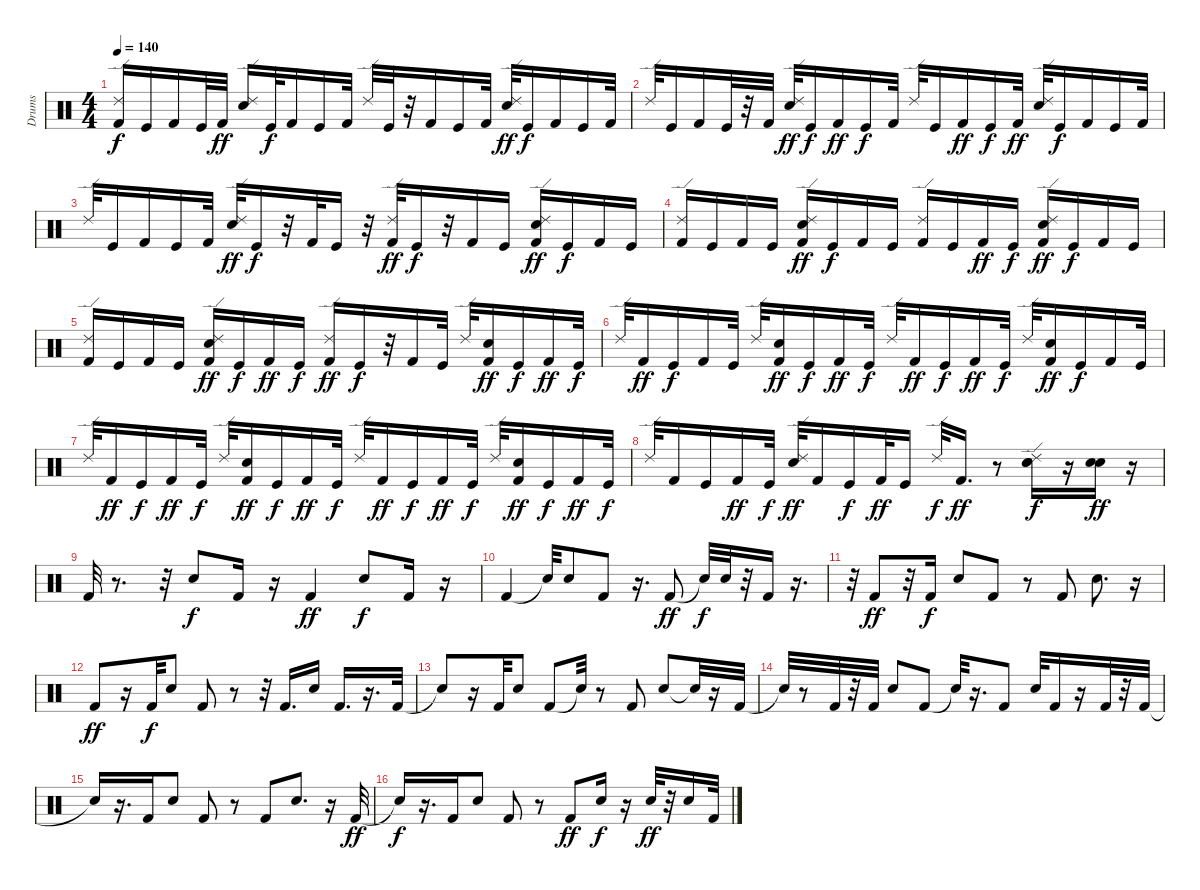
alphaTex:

\track ("Drums" "Drums") {instrument percussion}
\staff {score}
\articulation defaults
\ts (4 4)
\tempo 140
\clef neutral
\ks c
("Kick (hit) 2" "Ride (edge) 2").16{dy f} "Kick (hit)".16 "Kick (hit) 2".16 "Kick (hit)".32 "Kick (hit) 2".32{dy ff} ("Ride (edge) 2" "Snare (hit) 2").16 "Kick (hit)".32{dy f} "Kick (hit) 2".16 "Kick (hit)".16 "Kick (hit) 2".32 "Ride (edge) 2".32 "Kick (hit)".32 r.32 "Kick (hit) 2".16 "Kick (hit)".16 "Kick (hit) 2".32 ("Ride (edge) 2" "Snare (hit) 2").32{dy ff} "Kick (hit)".16{dy f} "Kick (hit) 2".16 "Kick (hit)".16 "Kick (hit) 2".32 |
"Ride (edge) 2".32 "Kick (hit)".16 "Kick (hit) 2".16 "Kick (hit)".32 r.32 "Kick (hit) 2".32 ("Ride (edge) 2" "Snare (hit) 2").32{dy ff} "Kick (hit)".16{dy f} "Kick (hit) 2".16{dy ff} "Kick (hit)".16{dy f} "Kick (hit) 2".32 "Ride (edge) 2".32 "Kick (hit)".16 "Kick (hit) 2".16{dy ff} "Kick (hit)".16{dy f} "Kick (hit) 2".32{dy ff} ("Snare (hit) 2" "Ride (edge) 2").32 "Kick (hit)".16{dy f} "Kick (hit) 2".16 "Kick (hit)".16 "Kick (hit) 2".32 |
"Ride (edge) 2".32 "Kick (hit)".16 "Kick (hit) 2".16 "Kick (hit)".16 "Kick (hit) 2".32 ("Snare (hit) 2" "Ride (edge) 2").32{dy ff} "Kick (hit)".16{dy f} r.32 "Kick (hit) 2".32 "Kick (hit)".16 r.32 ("Kick (hit) 2" "Ride (edge) 2").32{dy ff} "Kick (hit)".16{dy f} r.32 "Kick (hit) 2".16 "Kick (hit)".16 ("Kick (hit) 2" "Snare (hit) 2" "Ride (edge) 2").16{dy ff} "Kick (hit)".16{dy f} "Kick (hit) 2".16 "Kick (hit)".16 |
("Kick (hit) 2" "Ride (edge) 2").16 "Kick (hit)".16 "Kick (hit) 2".16 "Kick (hit)".16 ("Ride (edge) 2" "Kick (hit) 2" "Snare (hit) 2").16{dy ff} "Kick (hit)".16{dy f} "Kick (hit) 2".16 "Kick (hit)".16 ("Ride (edge) 2" "Kick (hit) 2").16 "Kick (hit)".16 "Kick (hit) 2".16{dy ff} "Kick (hit)".16{dy f} ("Ride (edge) 2" "Kick (hit) 2" "Snare (hit) 2").16{dy ff} "Kick (hit)".16{dy f} "Kick (hit) 2".16 "Kick (hit)".16 |
("Ride (edge) 2" "Kick (hit) 2").16 "Kick (hit)".16 "Kick (hit) 2".16 "Kick (hit)".16 ("Ride (edge) 2" "Kick (hit) 2" "Snare (hit) 2").16{dy ff} "Kick (hit)".16{dy f} "Kick (hit) 2".16{dy ff} "Kick (hit)".16{dy f} ("Ride (edge) 2" "Kick (hit) 2").16{dy ff} "Kick (hit)".16{dy f} r.32 "Kick (hit) 2".16 "Kick (hit)".32 "Ride (edge) 2".32 ("Snare (hit) 2" "Kick (hit) 2").16{dy ff} "Kick (hit)".16{dy f} "Kick (hit) 2".16{dy ff} "Kick (hit)".32{dy f} |
"Ride (edge) 2".32 "Kick (hit) 2".16{dy ff} "Kick (hit)".16{dy f} "Kick (hit) 2".16 "Kick (hit)".32 "Ride (edge) 2".32 ("Snare (hit) 2" "Kick (hit) 2").16{dy ff} "Kick (hit)".16{dy f} "Kick (hit) 2".16{dy ff} "Kick (hit)".32{dy f} "Ride (edge) 2".32 "Kick (hit) 2".16{dy ff} "Kick (hit)".16{dy f} "Kick (hit) 2".16{dy ff} "Kick (hit)".32{dy f} "Ride (edge) 2".32 ("Snare (hit) 2" "Kick (hit) 2").16{dy ff} "Kick (hit)".16{dy f} "Kick (hit) 2".16 "Kick (hit)".32 |
"Ride (edge) 2".32 "Kick (hit) 2".16{dy ff} "Kick (hit)".16{dy f} "Kick (hit) 2".16{dy ff} "Kick (hit)".32{dy f} "Ride (edge) 2".32 ("Snare (hit) 2" "Kick (hit) 2").16{dy ff} "Kick (hit)".16{dy f} "Kick (hit) 2".16{dy ff} "Kick (hit)".32{dy f} "Ride (edge) 2".32 "Kick (hit) 2".16{dy ff} "Kick (hit)".16{dy f} "Kick (hit) 2".16{dy ff} "Kick (hit)".32{dy f} "Ride (edge) 2".32 ("Kick (hit) 2" "Snare (hit) 2").16{dy ff} "Kick (hit)".16{dy f} "Kick (hit) 2".16{dy ff} "Kick (hit)".32{dy f} |
"Ride (edge) 2".32 "Kick (hit) 2".16 "Kick (hit)".16 "Kick (hit) 2".16{dy ff} "Kick (hit)".32{dy f} ("Ride (edge) 2" "Snare (hit) 2").32{dy ff} "Kick (hit) 2".16 "Kick (hit)".16{dy f} "Kick (hit) 2".32{dy ff} "Kick (hit)".16 "Ride (edge) 2".32{dy f} "Kick (hit) 2".16{d dy ff} r.8 ("Electric Snare (hit)" "Ride (edge) 2" "Snare (hit) 2").16{dy f} r.16 ("Snare (hit) 2" "Electric Snare (hit)").16{dy ff} r.16 |
"Kick (hit) 2".32 r.8{d} r.32 "Snare (hit) 2".8{dy f} "Kick (hit) 2".16 r.16 "Kick (hit) 2".4{dy ff} "Snare (hit) 2".8{dy f} "Kick (hit) 2".16 r.16 |
"Kick (hit) 2".4 "Snare (hit)"{t}.32 "Snare (hit) 2".8 "Kick (hit) 2".8 r.16{d} "Kick (hit) 2".8{dy ff} "Snare (hit)"{t}.32{dy f} "Snare (hit) 2".32 r.32 "Kick (hit) 2".16 r.16{d} |
r.32 "Kick (hit) 2".8{dy ff} r.32 "Kick (hit) 2".16{dy f} "Snare (hit) 2".8 "Kick (hit) 2".8 r.8 "Kick (hit) 2".8 "Snare (hit) 2".8{d} r.16 |
"Kick (hit) 2".8{dy ff} r.16 "Kick (hit) 2".32{dy f} "Snare (hit) 2".8 "Kick (hit) 2".8 r.8 r.32 "Kick (hit) 2".16{d} "Snare (hit) 2".16 "Kick (hit) 2".16{d} r.16{d} "Kick (hit) 2".32 |
"Snare (hit)"{t}.8 r.16 "Kick (hit) 2".32 "Snare (hit) 2".8 "Kick (hit) 2".8 "Snare (hit)"{t}.32 r.8 "Kick (hit) 2".8 "Snare (hit) 2".8 "Snare (hit)"{t}.32 r.16 "Kick (hit) 2".32 |
"Snare (hit)"{t}.32 r.8 "Kick (hit) 2".32 r.32 "Kick (hit) 2".32 "Snare (hit) 2".8 "Kick (hit) 2".8 "Snare (hit)"{t}.32 r.16{d} "Kick (hit) 2".8 "Snare (hit) 2".32 "Kick (hit) 2".16 r.16 "Kick (hit) 2".32 r.32 "Kick (hit) 2".32 |
"Snare (hit)"{t}.16 r.16{d} "Kick (hit) 2".16 "Snare (hit) 2".8 "Kick (hit) 2".8 r.8 "Kick (hit) 2".8 "Snare (hit) 2".8{d} r.16 "Kick (hit) 2".32{dy ff} |
"Snare (hit)"{t}.16{dy f} r.16{d} "Kick (hit) 2".16 "Snare (hit) 2".8 "Kick (hit) 2".8 r.8 "Kick (hit) 2".8{dy ff} "Snare (hit) 2".16{dy f} r.16 "Snare (hit) 2".32{dy ff} r.32 "Snare (hit) 2".16 "Kick (hit) 2".32
